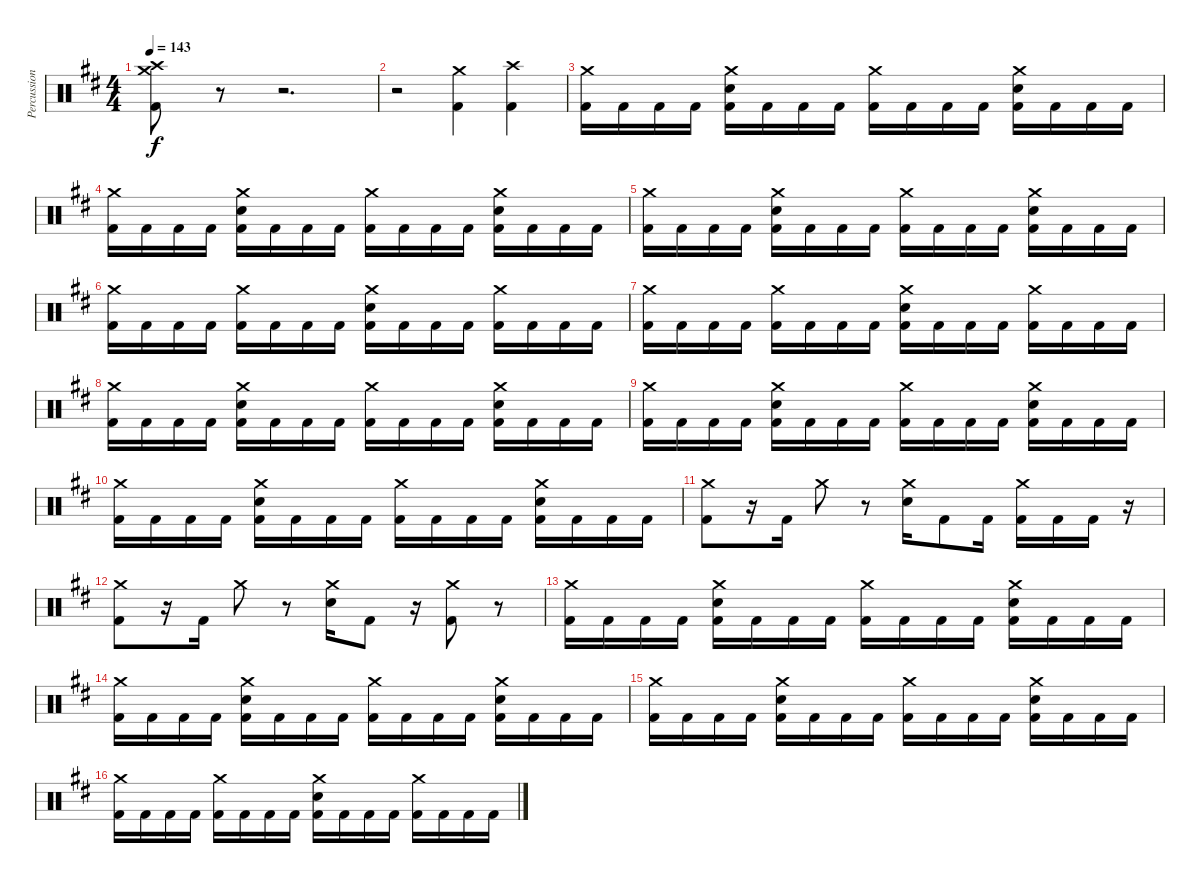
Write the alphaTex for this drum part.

\track ("Percussion" "Percussion") {instrument percussion}
\staff {score}
\articulation defaults
\ts (4 4)
\tempo 143
\clef neutral
\ks d
("Crash medium (hit)" "Crash high (hit)" "Kick (hit) 2").8{dy f} r.8{volume 0} r.2{d} |
r.2 ("Crash medium (hit)" "Kick (hit) 2").4{volume 16} ("Crash high (hit)" "Kick (hit) 2").4 |
("Crash medium (hit)" "Kick (hit) 2").16 "Kick (hit) 2".16 "Kick (hit) 2".16 "Kick (hit) 2".16 ("Crash medium (hit)" "Snare (hit) 2" "Kick (hit) 2").16 "Kick (hit) 2".16 "Kick (hit) 2".16 "Kick (hit) 2".16 ("Crash medium (hit)" "Kick (hit) 2").16 "Kick (hit) 2".16 "Kick (hit) 2".16 "Kick (hit) 2".16 ("Crash medium (hit)" "Snare (hit) 2" "Kick (hit) 2").16 "Kick (hit) 2".16 "Kick (hit) 2".16 "Kick (hit) 2".16 |
("Crash medium (hit)" "Kick (hit) 2").16 "Kick (hit) 2".16 "Kick (hit) 2".16 "Kick (hit) 2".16 ("Crash medium (hit)" "Snare (hit) 2" "Kick (hit) 2").16 "Kick (hit) 2".16 "Kick (hit) 2".16 "Kick (hit) 2".16 ("Crash medium (hit)" "Kick (hit) 2").16 "Kick (hit) 2".16 "Kick (hit) 2".16 "Kick (hit) 2".16 ("Crash medium (hit)" "Snare (hit) 2" "Kick (hit) 2").16 "Kick (hit) 2".16 "Kick (hit) 2".16 "Kick (hit) 2".16 |
("Crash medium (hit)" "Kick (hit) 2").16 "Kick (hit) 2".16 "Kick (hit) 2".16 "Kick (hit) 2".16 ("Crash medium (hit)" "Snare (hit) 2" "Kick (hit) 2").16 "Kick (hit) 2".16 "Kick (hit) 2".16 "Kick (hit) 2".16 ("Crash medium (hit)" "Kick (hit) 2").16 "Kick (hit) 2".16 "Kick (hit) 2".16 "Kick (hit) 2".16 ("Crash medium (hit)" "Snare (hit) 2" "Kick (hit) 2").16 "Kick (hit) 2".16 "Kick (hit) 2".16 "Kick (hit) 2".16 |
("Crash medium (hit)" "Kick (hit) 2").16 "Kick (hit) 2".16 "Kick (hit) 2".16 "Kick (hit) 2".16 ("Crash medium (hit)" "Kick (hit) 2").16 "Kick (hit) 2".16 "Kick (hit) 2".16 "Kick (hit) 2".16 ("Crash medium (hit)" "Snare (hit) 2" "Kick (hit) 2").16 "Kick (hit) 2".16 "Kick (hit) 2".16 "Kick (hit) 2".16 ("Crash medium (hit)" "Kick (hit) 2").16 "Kick (hit) 2".16 "Kick (hit) 2".16 "Kick (hit) 2".16 |
("Crash medium (hit)" "Kick (hit) 2").16 "Kick (hit) 2".16 "Kick (hit) 2".16 "Kick (hit) 2".16 ("Crash medium (hit)" "Kick (hit) 2").16 "Kick (hit) 2".16 "Kick (hit) 2".16 "Kick (hit) 2".16 ("Crash medium (hit)" "Snare (hit) 2" "Kick (hit) 2").16 "Kick (hit) 2".16 "Kick (hit) 2".16 "Kick (hit) 2".16 ("Crash medium (hit)" "Kick (hit) 2").16 "Kick (hit) 2".16 "Kick (hit) 2".16 "Kick (hit) 2".16 |
("Crash medium (hit)" "Kick (hit) 2").16 "Kick (hit) 2".16 "Kick (hit) 2".16 "Kick (hit) 2".16 ("Crash medium (hit)" "Snare (hit) 2" "Kick (hit) 2").16 "Kick (hit) 2".16 "Kick (hit) 2".16 "Kick (hit) 2".16 ("Crash medium (hit)" "Kick (hit) 2").16 "Kick (hit) 2".16 "Kick (hit) 2".16 "Kick (hit) 2".16 ("Crash medium (hit)" "Snare (hit) 2" "Kick (hit) 2").16 "Kick (hit) 2".16 "Kick (hit) 2".16 "Kick (hit) 2".16 |
("Crash medium (hit)" "Kick (hit) 2").16 "Kick (hit) 2".16 "Kick (hit) 2".16 "Kick (hit) 2".16 ("Crash medium (hit)" "Snare (hit) 2" "Kick (hit) 2").16 "Kick (hit) 2".16 "Kick (hit) 2".16 "Kick (hit) 2".16 ("Crash medium (hit)" "Kick (hit) 2").16 "Kick (hit) 2".16 "Kick (hit) 2".16 "Kick (hit) 2".16 ("Crash medium (hit)" "Snare (hit) 2" "Kick (hit) 2").16 "Kick (hit) 2".16 "Kick (hit) 2".16 "Kick (hit) 2".16 |
("Crash medium (hit)" "Kick (hit) 2").16 "Kick (hit) 2".16 "Kick (hit) 2".16 "Kick (hit) 2".16 ("Crash medium (hit)" "Snare (hit) 2" "Kick (hit) 2").16 "Kick (hit) 2".16 "Kick (hit) 2".16 "Kick (hit) 2".16 ("Crash medium (hit)" "Kick (hit) 2").16 "Kick (hit) 2".16 "Kick (hit) 2".16 "Kick (hit) 2".16 ("Crash medium (hit)" "Snare (hit) 2" "Kick (hit) 2").16 "Kick (hit) 2".16 "Kick (hit) 2".16 "Kick (hit) 2".16 |
("Crash medium (hit)" "Kick (hit) 2").8 r.16 "Kick (hit) 2".16 "Crash medium (hit)".8 r.8 ("Crash medium (hit)" "Snare (hit) 2").16 "Kick (hit) 2".8 "Kick (hit) 2".16 ("Crash medium (hit)" "Kick (hit) 2").16 "Kick (hit) 2".16 "Kick (hit) 2".16 r.16 |
("Crash medium (hit)" "Kick (hit) 2").8 r.16 "Kick (hit) 2".16 "Crash medium (hit)".8 r.8 ("Crash medium (hit)" "Snare (hit) 2").16 "Kick (hit) 2".8 r.16 ("Crash medium (hit)" "Kick (hit) 2").8 r.8 |
("Crash medium (hit)" "Kick (hit) 2").16 "Kick (hit) 2".16 "Kick (hit) 2".16 "Kick (hit) 2".16 ("Crash medium (hit)" "Snare (hit) 2" "Kick (hit) 2").16 "Kick (hit) 2".16 "Kick (hit) 2".16 "Kick (hit) 2".16 ("Crash medium (hit)" "Kick (hit) 2").16 "Kick (hit) 2".16 "Kick (hit) 2".16 "Kick (hit) 2".16 ("Crash medium (hit)" "Snare (hit) 2" "Kick (hit) 2").16 "Kick (hit) 2".16 "Kick (hit) 2".16 "Kick (hit) 2".16 |
("Crash medium (hit)" "Kick (hit) 2").16 "Kick (hit) 2".16 "Kick (hit) 2".16 "Kick (hit) 2".16 ("Crash medium (hit)" "Snare (hit) 2" "Kick (hit) 2").16 "Kick (hit) 2".16 "Kick (hit) 2".16 "Kick (hit) 2".16 ("Crash medium (hit)" "Kick (hit) 2").16 "Kick (hit) 2".16 "Kick (hit) 2".16 "Kick (hit) 2".16 ("Crash medium (hit)" "Snare (hit) 2" "Kick (hit) 2").16 "Kick (hit) 2".16 "Kick (hit) 2".16 "Kick (hit) 2".16 |
("Crash medium (hit)" "Kick (hit) 2").16 "Kick (hit) 2".16 "Kick (hit) 2".16 "Kick (hit) 2".16 ("Crash medium (hit)" "Snare (hit) 2" "Kick (hit) 2").16 "Kick (hit) 2".16 "Kick (hit) 2".16 "Kick (hit) 2".16 ("Crash medium (hit)" "Kick (hit) 2").16 "Kick (hit) 2".16 "Kick (hit) 2".16 "Kick (hit) 2".16 ("Crash medium (hit)" "Snare (hit) 2" "Kick (hit) 2").16 "Kick (hit) 2".16 "Kick (hit) 2".16 "Kick (hit) 2".16 |
("Crash medium (hit)" "Kick (hit) 2").16 "Kick (hit) 2".16 "Kick (hit) 2".16 "Kick (hit) 2".16 ("Crash medium (hit)" "Kick (hit) 2").16 "Kick (hit) 2".16 "Kick (hit) 2".16 "Kick (hit) 2".16 ("Crash medium (hit)" "Snare (hit) 2" "Kick (hit) 2").16 "Kick (hit) 2".16 "Kick (hit) 2".16 "Kick (hit) 2".16 ("Crash medium (hit)" "Kick (hit) 2").16 "Kick (hit) 2".16 "Kick (hit) 2".16 "Kick (hit) 2".16
